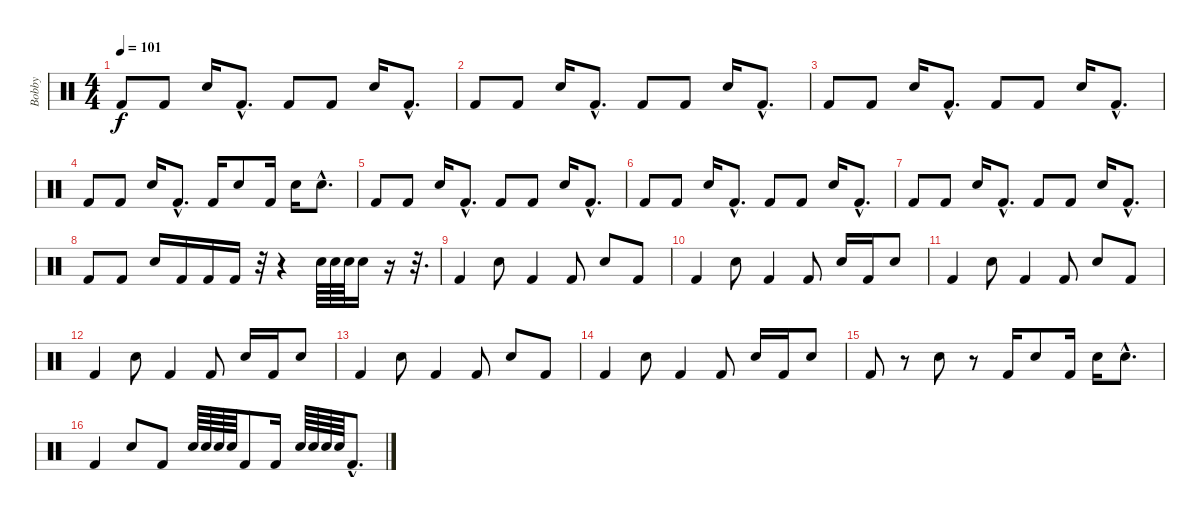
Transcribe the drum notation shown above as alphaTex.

\track ("Bobby " "Bobby ") {instrument percussion}
\staff {score}
\articulation defaults
\ts (4 4)
\tempo 101
\clef neutral
\ks c "Kick (hit) 2".8{dy f} "Kick (hit) 2".8 "Electric Snare (hit)".16 "Kick (hit) 2"{hac}.8{d} "Kick (hit) 2".8 "Kick (hit) 2".8 "Electric Snare (hit)".16 "Kick (hit) 2"{hac}.8{d}
|
"Kick (hit) 2".8 "Kick (hit) 2".8 "Electric Snare (hit)".16 "Kick (hit) 2"{hac}.8{d} "Kick (hit) 2".8 "Kick (hit) 2".8 "Electric Snare (hit)".16 "Kick (hit) 2"{hac}.8{d} |
"Kick (hit) 2".8 "Kick (hit) 2".8 "Electric Snare (hit)".16 "Kick (hit) 2"{hac}.8{d} "Kick (hit) 2".8 "Kick (hit) 2".8 "Electric Snare (hit)".16 "Kick (hit) 2"{hac}.8{d} |
"Kick (hit) 2".8 "Kick (hit) 2".8 "Electric Snare (hit)".16 "Kick (hit) 2"{hac}.8{d} "Kick (hit) 2".16 "Electric Snare (hit)".8 "Kick (hit) 2".16 "Electric Snare (hit)".16 "Electric Snare (hit)"{hac}.8{d} |
"Kick (hit) 2".8 "Kick (hit) 2".8 "Electric Snare (hit)".16 "Kick (hit) 2"{hac}.8{d} "Kick (hit) 2".8 "Kick (hit) 2".8 "Electric Snare (hit)".16 "Kick (hit) 2"{hac}.8{d} |
"Kick (hit) 2".8 "Kick (hit) 2".8 "Electric Snare (hit)".16 "Kick (hit) 2"{hac}.8{d} "Kick (hit) 2".8 "Kick (hit) 2".8 "Electric Snare (hit)".16 "Kick (hit) 2"{hac}.8{d} |
"Kick (hit) 2".8 "Kick (hit) 2".8 "Electric Snare (hit)".16 "Kick (hit) 2"{hac}.8{d} "Kick (hit) 2".8 "Kick (hit) 2".8 "Electric Snare (hit)".16 "Kick (hit) 2"{hac}.8{d} |
"Kick (hit) 2".8 "Kick (hit) 2".8 "Electric Snare (hit)".16 "Kick (hit) 2".16 "Kick (hit) 2".16 "Kick (hit) 2".16 r.32 r.4 "Electric Snare (hit)".64 "Electric Snare (hit)".64 "Electric Snare (hit)".64 "Electric Snare (hit)".16 r.16 r.32{d} |
"Kick (hit) 2".4 "Electric Snare (hit)".8 "Kick (hit) 2".4 "Kick (hit) 2".8 "Electric Snare (hit)".8 "Kick (hit) 2".8 |
"Kick (hit) 2".4 "Electric Snare (hit)".8 "Kick (hit) 2".4 "Kick (hit) 2".8 "Electric Snare (hit)".16 "Kick (hit) 2".16 "Electric Snare (hit)".8 |
"Kick (hit) 2".4 "Electric Snare (hit)".8 "Kick (hit) 2".4 "Kick (hit) 2".8 "Electric Snare (hit)".8 "Kick (hit) 2".8 |
"Kick (hit) 2".4 "Electric Snare (hit)".8 "Kick (hit) 2".4 "Kick (hit) 2".8 "Electric Snare (hit)".16 "Kick (hit) 2".16 "Electric Snare (hit)".8 |
"Kick (hit) 2".4 "Electric Snare (hit)".8 "Kick (hit) 2".4 "Kick (hit) 2".8 "Electric Snare (hit)".8 "Kick (hit) 2".8 |
"Kick (hit) 2".4 "Electric Snare (hit)".8 "Kick (hit) 2".4 "Kick (hit) 2".8 "Electric Snare (hit)".16 "Kick (hit) 2".16 "Electric Snare (hit)".8 |
"Kick (hit) 2".8 r.8 "Electric Snare (hit)".8 r.8 "Kick (hit) 2".16 "Electric Snare (hit)".8 "Kick (hit) 2".16 "Electric Snare (hit)".16 "Electric Snare (hit)"{hac}.8{d} |
"Kick (hit) 2".4 "Electric Snare (hit)".8 "Kick (hit) 2".8 "Electric Snare (hit)".64 "Electric Snare (hit)".64 "Electric Snare (hit)".64 "Electric Snare (hit)".64 "Kick (hit) 2".8 "Kick (hit) 2".16 "Electric Snare (hit)".64 "Electric Snare (hit)".64 "Electric Snare (hit)".64 "Electric Snare (hit)".64 "Kick (hit) 2"{hac}.8{d}
